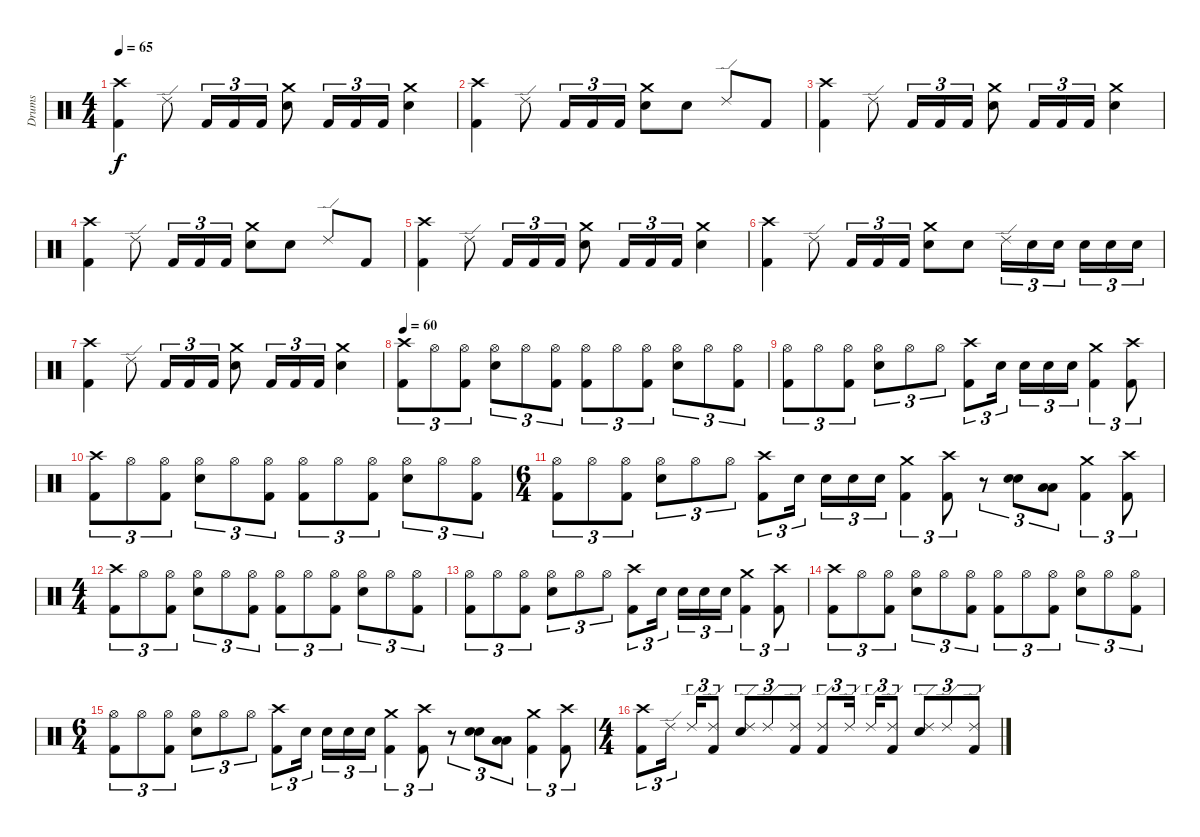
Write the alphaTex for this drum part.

\track ("Drums" "Drums") {instrument percussion}
\staff {score}
\articulation defaults
\ts (4 4)
\tempo 65
\clef neutral
\ks c
("Crash high (hit)" "Kick (hit) 2").4{dy f} "Ride (edge) 2".8 "Kick (hit) 2".16{tu (3 2)} "Kick (hit) 2".16{tu (3 2)} "Kick (hit) 2".16{tu (3 2)} ("Crash medium (hit)" "Electric Snare (hit)").8 "Kick (hit) 2".16{tu (3 2)} "Kick (hit) 2".16{tu (3 2)} "Kick (hit) 2".16{tu (3 2)} ("Crash medium (hit)" "Electric Snare (hit)").4 |
("Crash high (hit)" "Kick (hit) 2").4 "Ride (edge) 2".8 "Kick (hit) 2".16{tu (3 2)} "Kick (hit) 2".16{tu (3 2)} "Kick (hit) 2".16{tu (3 2)} ("Crash medium (hit)" "Electric Snare (hit)").8 "Electric Snare (hit)".8 "Ride (edge) 2".8 "Kick (hit) 2".8 |
("Crash high (hit)" "Kick (hit) 2").4 "Ride (edge) 2".8 "Kick (hit) 2".16{tu (3 2)} "Kick (hit) 2".16{tu (3 2)} "Kick (hit) 2".16{tu (3 2)} ("Crash medium (hit)" "Electric Snare (hit)").8 "Kick (hit) 2".16{tu (3 2)} "Kick (hit) 2".16{tu (3 2)} "Kick (hit) 2".16{tu (3 2)} ("Crash medium (hit)" "Electric Snare (hit)").4 |
("Crash high (hit)" "Kick (hit) 2").4 "Ride (edge) 2".8 "Kick (hit) 2".16{tu (3 2)} "Kick (hit) 2".16{tu (3 2)} "Kick (hit) 2".16{tu (3 2)} ("Crash medium (hit)" "Electric Snare (hit)").8 "Electric Snare (hit)".8 "Ride (edge) 2".8 "Kick (hit) 2".8 |
("Crash high (hit)" "Kick (hit) 2").4 "Ride (edge) 2".8 "Kick (hit) 2".16{tu (3 2)} "Kick (hit) 2".16{tu (3 2)} "Kick (hit) 2".16{tu (3 2)} ("Crash medium (hit)" "Electric Snare (hit)").8 "Kick (hit) 2".16{tu (3 2)} "Kick (hit) 2".16{tu (3 2)} "Kick (hit) 2".16{tu (3 2)} ("Crash medium (hit)" "Electric Snare (hit)").4 |
("Crash high (hit)" "Kick (hit) 2").4 "Ride (edge) 2".8 "Kick (hit) 2".16{tu (3 2)} "Kick (hit) 2".16{tu (3 2)} "Kick (hit) 2".16{tu (3 2)} ("Crash medium (hit)" "Electric Snare (hit)").8 "Electric Snare (hit)".8 "Ride (edge) 2".16{tu (3 2)} "Electric Snare (hit)".16{tu (3 2)} "Electric Snare (hit)".16{tu (3 2)} "Electric Snare (hit)".16{tu (3 2)} "Electric Snare (hit)".16{tu (3 2)} "Electric Snare (hit)".16{tu (3 2)} |
("Crash high (hit)" "Kick (hit) 2").4 "Ride (edge) 2".8 "Kick (hit) 2".16{tu (3 2)} "Kick (hit) 2".16{tu (3 2)} "Kick (hit) 2".16{tu (3 2)} ("Crash medium (hit)" "Electric Snare (hit)").8 "Kick (hit) 2".16{tu (3 2)} "Kick (hit) 2".16{tu (3 2)} "Kick (hit) 2".16{tu (3 2)} ("Crash medium (hit)" "Electric Snare (hit)").4 |
\tempo 60
("Crash high (hit)" "Kick (hit) 2").8{tu (3 2)} "Hi-Hat (open)".8{tu (3 2)} ("Hi-Hat (open)" "Kick (hit) 2").8{tu (3 2)} ("Hi-Hat (open)" "Electric Snare (hit)").8{tu (3 2)} "Hi-Hat (open)".8{tu (3 2)} ("Hi-Hat (open)" "Kick (hit) 2").8{tu (3 2)} ("Hi-Hat (open)" "Kick (hit) 2").8{tu (3 2)} "Hi-Hat (open)".8{tu (3 2)} ("Hi-Hat (open)" "Kick (hit) 2").8{tu (3 2)} ("Hi-Hat (open)" "Electric Snare (hit)").8{tu (3 2)} "Hi-Hat (open)".8{tu (3 2)} ("Hi-Hat (open)" "Kick (hit) 2").8{tu (3 2)} |
("Hi-Hat (open)" "Kick (hit) 2").8{tu (3 2)} "Hi-Hat (open)".8{tu (3 2)} ("Hi-Hat (open)" "Kick (hit) 2").8{tu (3 2)} ("Hi-Hat (open)" "Electric Snare (hit)").8{tu (3 2)} "Hi-Hat (open)".8{tu (3 2)} "Hi-Hat (open)".8{tu (3 2)} ("Crash high (hit)" "Kick (hit) 2").8{tu (3 2)} "Electric Snare (hit)".16{tu (3 2)} "Electric Snare (hit)".16{tu (3 2)} "Electric Snare (hit)".16{tu (3 2)} "Electric Snare (hit)".16{tu (3 2)} ("Crash medium (hit)" "Kick (hit) 2").4{tu (3 2)} ("Crash high (hit)" "Kick (hit) 2").8{tu (3 2)} |
("Crash high (hit)" "Kick (hit) 2").8{tu (3 2)} "Hi-Hat (open)".8{tu (3 2)} ("Hi-Hat (open)" "Kick (hit) 2").8{tu (3 2)} ("Hi-Hat (open)" "Electric Snare (hit)").8{tu (3 2)} "Hi-Hat (open)".8{tu (3 2)} ("Hi-Hat (open)" "Kick (hit) 2").8{tu (3 2)} ("Hi-Hat (open)" "Kick (hit) 2").8{tu (3 2)} "Hi-Hat (open)".8{tu (3 2)} ("Hi-Hat (open)" "Kick (hit) 2").8{tu (3 2)} ("Hi-Hat (open)" "Electric Snare (hit)").8{tu (3 2)} "Hi-Hat (open)".8{tu (3 2)} ("Hi-Hat (open)" "Kick (hit) 2").8{tu (3 2)} |
\ts (6 4)
("Hi-Hat (open)" "Kick (hit) 2").8{tu (3 2)} "Hi-Hat (open)".8{tu (3 2)} ("Hi-Hat (open)" "Kick (hit) 2").8{tu (3 2)} ("Hi-Hat (open)" "Electric Snare (hit)").8{tu (3 2)} "Hi-Hat (open)".8{tu (3 2)} "Hi-Hat (open)".8{tu (3 2)} ("Crash high (hit)" "Kick (hit) 2").8{tu (3 2)} "Electric Snare (hit)".16{tu (3 2)} "Electric Snare (hit)".16{tu (3 2)} "Electric Snare (hit)".16{tu (3 2)} "Electric Snare (hit)".16{tu (3 2)} ("Crash medium (hit)" "Kick (hit) 2").4{tu (3 2)} ("Crash high (hit)" "Kick (hit) 2").8{tu (3 2)} r.8{tu (3 2)} ("Electric Snare (hit)" "Electric Snare (hit)").8{tu (3 2) bu 60} ("Low Tom (hit)" "Low Tom (hit)").8{tu (3 2) bu 60} ("Crash medium (hit)" "Kick (hit) 2").4{tu (3 2)} ("Crash high (hit)" "Kick (hit) 2").8{tu (3 2)} |
\ts (4 4)
("Crash high (hit)" "Kick (hit) 2").8{tu (3 2)} "Hi-Hat (open)".8{tu (3 2)} ("Hi-Hat (open)" "Kick (hit) 2").8{tu (3 2)} ("Hi-Hat (open)" "Electric Snare (hit)").8{tu (3 2)} "Hi-Hat (open)".8{tu (3 2)} ("Hi-Hat (open)" "Kick (hit) 2").8{tu (3 2)} ("Hi-Hat (open)" "Kick (hit) 2").8{tu (3 2)} "Hi-Hat (open)".8{tu (3 2)} ("Hi-Hat (open)" "Kick (hit) 2").8{tu (3 2)} ("Hi-Hat (open)" "Electric Snare (hit)").8{tu (3 2)} "Hi-Hat (open)".8{tu (3 2)} ("Hi-Hat (open)" "Kick (hit) 2").8{tu (3 2)} |
("Hi-Hat (open)" "Kick (hit) 2").8{tu (3 2)} "Hi-Hat (open)".8{tu (3 2)} ("Hi-Hat (open)" "Kick (hit) 2").8{tu (3 2)} ("Hi-Hat (open)" "Electric Snare (hit)").8{tu (3 2)} "Hi-Hat (open)".8{tu (3 2)} "Hi-Hat (open)".8{tu (3 2)} ("Crash high (hit)" "Kick (hit) 2").8{tu (3 2)} "Electric Snare (hit)".16{tu (3 2)} "Electric Snare (hit)".16{tu (3 2)} "Electric Snare (hit)".16{tu (3 2)} "Electric Snare (hit)".16{tu (3 2)} ("Crash medium (hit)" "Kick (hit) 2").4{tu (3 2)} ("Crash high (hit)" "Kick (hit) 2").8{tu (3 2)} |
("Crash high (hit)" "Kick (hit) 2").8{tu (3 2)} "Hi-Hat (open)".8{tu (3 2)} ("Hi-Hat (open)" "Kick (hit) 2").8{tu (3 2)} ("Hi-Hat (open)" "Electric Snare (hit)").8{tu (3 2)} "Hi-Hat (open)".8{tu (3 2)} ("Hi-Hat (open)" "Kick (hit) 2").8{tu (3 2)} ("Hi-Hat (open)" "Kick (hit) 2").8{tu (3 2)} "Hi-Hat (open)".8{tu (3 2)} ("Hi-Hat (open)" "Kick (hit) 2").8{tu (3 2)} ("Hi-Hat (open)" "Electric Snare (hit)").8{tu (3 2)} "Hi-Hat (open)".8{tu (3 2)} ("Hi-Hat (open)" "Kick (hit) 2").8{tu (3 2)} |
\ts (6 4)
("Hi-Hat (open)" "Kick (hit) 2").8{tu (3 2)} "Hi-Hat (open)".8{tu (3 2)} ("Hi-Hat (open)" "Kick (hit) 2").8{tu (3 2)} ("Hi-Hat (open)" "Electric Snare (hit)").8{tu (3 2)} "Hi-Hat (open)".8{tu (3 2)} "Hi-Hat (open)".8{tu (3 2)} ("Crash high (hit)" "Kick (hit) 2").8{tu (3 2)} "Electric Snare (hit)".16{tu (3 2)} "Electric Snare (hit)".16{tu (3 2)} "Electric Snare (hit)".16{tu (3 2)} "Electric Snare (hit)".16{tu (3 2)} ("Crash medium (hit)" "Kick (hit) 2").4{tu (3 2)} ("Crash high (hit)" "Kick (hit) 2").8{tu (3 2)} r.8{tu (3 2)} ("Electric Snare (hit)" "Electric Snare (hit)").8{tu (3 2) bu 60} ("Low Tom (hit)" "Low Tom (hit)").8{tu (3 2) bu 60} ("Crash medium (hit)" "Kick (hit) 2").4{tu (3 2)} ("Crash high (hit)" "Kick (hit) 2").8{tu (3 2)} |
\ts (4 4)
("Crash high (hit)" "Kick (hit) 2").8{tu (3 2)} "Ride (edge) 2".16{tu (3 2)} "Ride (edge) 2".16{tu (3 2)} ("Ride (edge) 2" "Kick (hit) 2").8{tu (3 2)} ("Ride (edge) 2" "Electric Snare (hit)").8{tu (3 2)} "Ride (edge) 2".8{tu (3 2)} ("Ride (edge) 2" "Kick (hit) 2").8{tu (3 2)} ("Ride (edge) 2" "Kick (hit) 2").8{tu (3 2)} "Ride (edge) 2".16{tu (3 2)} "Ride (edge) 2".16{tu (3 2)} ("Ride (edge) 2" "Kick (hit) 2").8{tu (3 2)} ("Ride (edge) 2" "Electric Snare (hit)").8{tu (3 2)} "Ride (edge) 2".8{tu (3 2)} ("Ride (edge) 2" "Kick (hit) 2").8{tu (3 2)}
